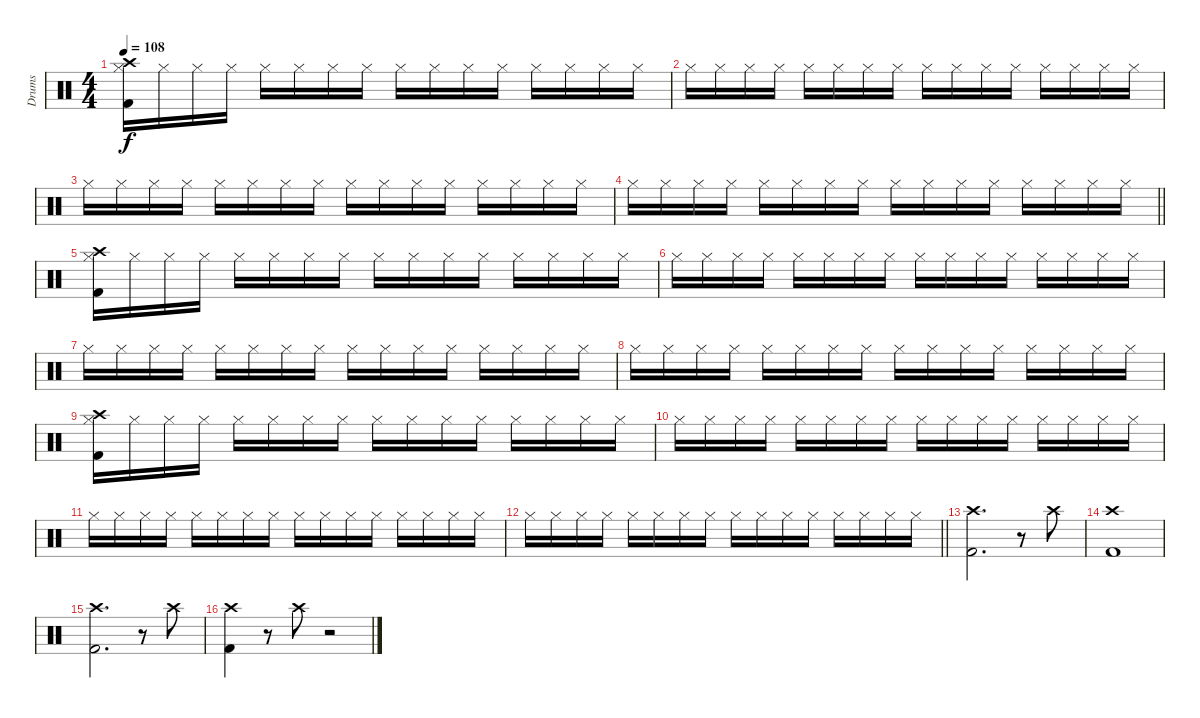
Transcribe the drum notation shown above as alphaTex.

\track ("Drums" "Drums") {instrument percussion}
\staff {score}
\articulation defaults
\ts (4 4)
\tempo 108
\clef neutral
\ks c
("Crash high (hit)" "Hi-Hat (closed)" "Kick (hit) 2").16{dy f} "Hi-Hat (closed)".16 "Hi-Hat (closed)".16 "Hi-Hat (closed)".16 "Hi-Hat (closed)".16 "Hi-Hat (closed)".16 "Hi-Hat (closed)".16 "Hi-Hat (closed)".16 "Hi-Hat (closed)".16 "Hi-Hat (closed)".16 "Hi-Hat (closed)".16 "Hi-Hat (closed)".16 "Hi-Hat (closed)".16 "Hi-Hat (closed)".16 "Hi-Hat (closed)".16 "Hi-Hat (closed)".16 |
"Hi-Hat (closed)".16 "Hi-Hat (closed)".16 "Hi-Hat (closed)".16 "Hi-Hat (closed)".16 "Hi-Hat (closed)".16 "Hi-Hat (closed)".16 "Hi-Hat (closed)".16 "Hi-Hat (closed)".16 "Hi-Hat (closed)".16 "Hi-Hat (closed)".16 "Hi-Hat (closed)".16 "Hi-Hat (closed)".16 "Hi-Hat (closed)".16 "Hi-Hat (closed)".16 "Hi-Hat (closed)".16 "Hi-Hat (closed)".16 |
"Hi-Hat (closed)".16 "Hi-Hat (closed)".16 "Hi-Hat (closed)".16 "Hi-Hat (closed)".16 "Hi-Hat (closed)".16 "Hi-Hat (closed)".16 "Hi-Hat (closed)".16 "Hi-Hat (closed)".16 "Hi-Hat (closed)".16 "Hi-Hat (closed)".16 "Hi-Hat (closed)".16 "Hi-Hat (closed)".16 "Hi-Hat (closed)".16 "Hi-Hat (closed)".16 "Hi-Hat (closed)".16 "Hi-Hat (closed)".16 |
\barLineRight lightlight "Hi-Hat (closed)".16 "Hi-Hat (closed)".16 "Hi-Hat (closed)".16 "Hi-Hat (closed)".16 "Hi-Hat (closed)".16 "Hi-Hat (closed)".16 "Hi-Hat (closed)".16 "Hi-Hat (closed)".16 "Hi-Hat (closed)".16 "Hi-Hat (closed)".16 "Hi-Hat (closed)".16 "Hi-Hat (closed)".16 "Hi-Hat (closed)".16 "Hi-Hat (closed)".16 "Hi-Hat (closed)".16 "Hi-Hat (closed)".16
|
\section ("" "")
("Crash high (hit)" "Hi-Hat (closed)" "Kick (hit) 2").16 "Hi-Hat (closed)".16 "Hi-Hat (closed)".16 "Hi-Hat (closed)".16 "Hi-Hat (closed)".16 "Hi-Hat (closed)".16 "Hi-Hat (closed)".16 "Hi-Hat (closed)".16 "Hi-Hat (closed)".16 "Hi-Hat (closed)".16 "Hi-Hat (closed)".16 "Hi-Hat (closed)".16 "Hi-Hat (closed)".16 "Hi-Hat (closed)".16 "Hi-Hat (closed)".16 "Hi-Hat (closed)".16 |
"Hi-Hat (closed)".16 "Hi-Hat (closed)".16 "Hi-Hat (closed)".16 "Hi-Hat (closed)".16 "Hi-Hat (closed)".16 "Hi-Hat (closed)".16 "Hi-Hat (closed)".16 "Hi-Hat (closed)".16 "Hi-Hat (closed)".16 "Hi-Hat (closed)".16 "Hi-Hat (closed)".16 "Hi-Hat (closed)".16 "Hi-Hat (closed)".16 "Hi-Hat (closed)".16 "Hi-Hat (closed)".16 "Hi-Hat (closed)".16 |
"Hi-Hat (closed)".16 "Hi-Hat (closed)".16 "Hi-Hat (closed)".16 "Hi-Hat (closed)".16 "Hi-Hat (closed)".16 "Hi-Hat (closed)".16 "Hi-Hat (closed)".16 "Hi-Hat (closed)".16 "Hi-Hat (closed)".16 "Hi-Hat (closed)".16 "Hi-Hat (closed)".16 "Hi-Hat (closed)".16 "Hi-Hat (closed)".16 "Hi-Hat (closed)".16 "Hi-Hat (closed)".16 "Hi-Hat (closed)".16 |
"Hi-Hat (closed)".16 "Hi-Hat (closed)".16 "Hi-Hat (closed)".16 "Hi-Hat (closed)".16 "Hi-Hat (closed)".16 "Hi-Hat (closed)".16 "Hi-Hat (closed)".16 "Hi-Hat (closed)".16 "Hi-Hat (closed)".16 "Hi-Hat (closed)".16 "Hi-Hat (closed)".16 "Hi-Hat (closed)".16 "Hi-Hat (closed)".16 "Hi-Hat (closed)".16 "Hi-Hat (closed)".16 "Hi-Hat (closed)".16 |
("Crash high (hit)" "Hi-Hat (closed)" "Kick (hit) 2").16 "Hi-Hat (closed)".16 "Hi-Hat (closed)".16 "Hi-Hat (closed)".16 "Hi-Hat (closed)".16 "Hi-Hat (closed)".16 "Hi-Hat (closed)".16 "Hi-Hat (closed)".16 "Hi-Hat (closed)".16 "Hi-Hat (closed)".16 "Hi-Hat (closed)".16 "Hi-Hat (closed)".16 "Hi-Hat (closed)".16 "Hi-Hat (closed)".16 "Hi-Hat (closed)".16 "Hi-Hat (closed)".16 |
"Hi-Hat (closed)".16 "Hi-Hat (closed)".16 "Hi-Hat (closed)".16 "Hi-Hat (closed)".16 "Hi-Hat (closed)".16 "Hi-Hat (closed)".16 "Hi-Hat (closed)".16 "Hi-Hat (closed)".16 "Hi-Hat (closed)".16 "Hi-Hat (closed)".16 "Hi-Hat (closed)".16 "Hi-Hat (closed)".16 "Hi-Hat (closed)".16 "Hi-Hat (closed)".16 "Hi-Hat (closed)".16 "Hi-Hat (closed)".16 |
"Hi-Hat (closed)".16 "Hi-Hat (closed)".16 "Hi-Hat (closed)".16 "Hi-Hat (closed)".16 "Hi-Hat (closed)".16 "Hi-Hat (closed)".16 "Hi-Hat (closed)".16 "Hi-Hat (closed)".16 "Hi-Hat (closed)".16 "Hi-Hat (closed)".16 "Hi-Hat (closed)".16 "Hi-Hat (closed)".16 "Hi-Hat (closed)".16 "Hi-Hat (closed)".16 "Hi-Hat (closed)".16 "Hi-Hat (closed)".16 |
\barLineRight lightlight "Hi-Hat (closed)".16 "Hi-Hat (closed)".16 "Hi-Hat (closed)".16 "Hi-Hat (closed)".16 "Hi-Hat (closed)".16 "Hi-Hat (closed)".16 "Hi-Hat (closed)".16 "Hi-Hat (closed)".16 "Hi-Hat (closed)".16 "Hi-Hat (closed)".16 "Hi-Hat (closed)".16 "Hi-Hat (closed)".16 "Hi-Hat (closed)".16 "Hi-Hat (closed)".16 "Hi-Hat (closed)".16 "Hi-Hat (closed)".16
|
\section ("" "")
("Crash high (hit)" "Kick (hit) 2").2{d} r.8 "Crash high (hit)".8 |
("Crash high (hit)" "Kick (hit) 2").1 |
("Crash high (hit)" "Kick (hit) 2").2{d} r.8 "Crash high (hit)".8 |
("Crash high (hit)" "Kick (hit) 2").4 r.8 "Crash high (hit)".8 r.2
